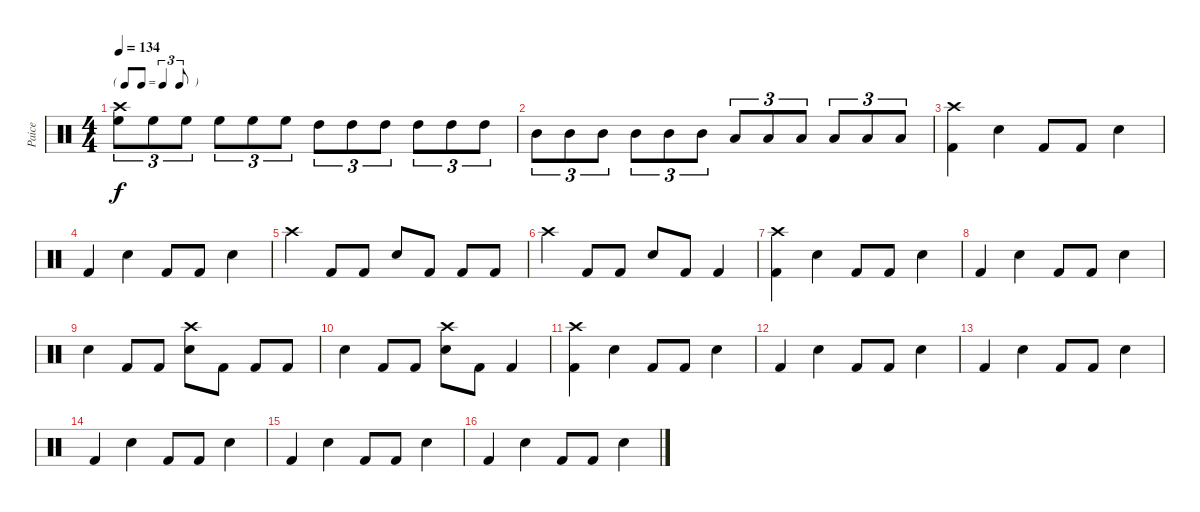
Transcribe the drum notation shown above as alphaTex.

\track ("Paice" "Paice") {instrument percussion}
\staff {score}
\articulation defaults
\ts (4 4)
\tf triplet8th
\tempo 134
\clef neutral
\ks c
("High Floor Tom (hit)" "Crash high (hit)").8{tu (3 2) dy f} "High Floor Tom (hit)".8{tu (3 2)} "High Floor Tom (hit)".8{tu (3 2)} "High Floor Tom (hit)".8{tu (3 2)} "High Floor Tom (hit)".8{tu (3 2)} "High Floor Tom (hit)".8{tu (3 2)} "High Tom (hit)".8{tu (3 2)} "High Tom (hit)".8{tu (3 2)} "High Tom (hit)".8{tu (3 2)} "High Tom (hit)".8{tu (3 2)} "High Tom (hit)".8{tu (3 2)} "High Tom (hit)".8{tu (3 2)} |
"Mid Tom (hit)".8{tu (3 2)} "Mid Tom (hit)".8{tu (3 2)} "Mid Tom (hit)".8{tu (3 2)} "Mid Tom (hit)".8{tu (3 2)} "Mid Tom (hit)".8{tu (3 2)} "Mid Tom (hit)".8{tu (3 2)} "Low Tom (hit)".8{tu (3 2)} "Low Tom (hit)".8{tu (3 2)} "Low Tom (hit)".8{tu (3 2)} "Low Tom (hit)".8{tu (3 2)} "Low Tom (hit)".8{tu (3 2)} "Low Tom (hit)".8{tu (3 2)} |
("Kick (hit) 2" "Crash high (hit)").4 "Electric Snare (hit)".4 "Kick (hit) 2".8 "Kick (hit) 2".8 "Electric Snare (hit)".4 |
"Kick (hit) 2".4 "Electric Snare (hit)".4 "Kick (hit) 2".8 "Kick (hit) 2".8 "Electric Snare (hit)".4 |
"Crash high (hit)".4 "Kick (hit) 2".8 "Kick (hit) 2".8 "Electric Snare (hit)".8 "Kick (hit) 2".8 "Kick (hit) 2".8 "Kick (hit) 2".8 |
"Crash high (hit)".4 "Kick (hit) 2".8 "Kick (hit) 2".8 "Electric Snare (hit)".8 "Kick (hit) 2".8 "Kick (hit) 2".4 |
("Kick (hit) 2" "Crash high (hit)").4 "Electric Snare (hit)".4 "Kick (hit) 2".8 "Kick (hit) 2".8 "Electric Snare (hit)".4 |
"Kick (hit) 2".4 "Electric Snare (hit)".4 "Kick (hit) 2".8 "Kick (hit) 2".8 "Electric Snare (hit)".4 |
"Electric Snare (hit)".4 "Kick (hit) 2".8 "Kick (hit) 2".8 ("Electric Snare (hit)" "Crash high (hit)").8 "Kick (hit) 2".8 "Kick (hit) 2".8 "Kick (hit) 2".8 |
"Electric Snare (hit)".4 "Kick (hit) 2".8 "Kick (hit) 2".8 ("Electric Snare (hit)" "Crash high (hit)").8 "Kick (hit) 2".8 "Kick (hit) 2".4 |
("Kick (hit) 2" "Crash high (hit)").4 "Electric Snare (hit)".4 "Kick (hit) 2".8 "Kick (hit) 2".8 "Electric Snare (hit)".4 |
"Kick (hit) 2".4 "Electric Snare (hit)".4 "Kick (hit) 2".8 "Kick (hit) 2".8 "Electric Snare (hit)".4 |
"Kick (hit) 2".4 "Electric Snare (hit)".4 "Kick (hit) 2".8 "Kick (hit) 2".8 "Electric Snare (hit)".4 |
"Kick (hit) 2".4 "Electric Snare (hit)".4 "Kick (hit) 2".8 "Kick (hit) 2".8 "Electric Snare (hit)".4 |
"Kick (hit) 2".4 "Electric Snare (hit)".4 "Kick (hit) 2".8 "Kick (hit) 2".8 "Electric Snare (hit)".4 |
"Kick (hit) 2".4 "Electric Snare (hit)".4 "Kick (hit) 2".8 "Kick (hit) 2".8 "Electric Snare (hit)".4
